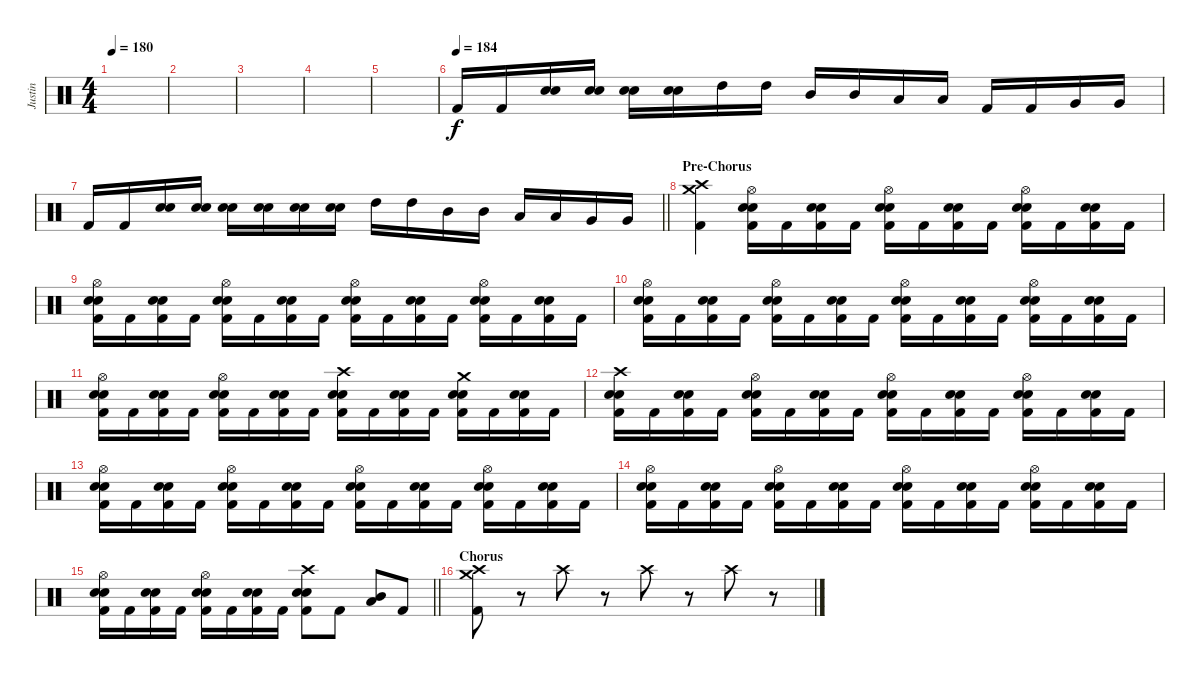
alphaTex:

\track ("Justin" "Justin") {instrument percussion}
\staff {score}
\articulation defaults
\ts (4 4)
\tempo 180
\clef neutral
\ks c
|
|
|
|
|
\tempo (184)
"Kick (hit) 2".16{dy f} "Kick (hit) 2".16 ("Electric Snare (hit)" "Snare (hit) 2").16 ("Electric Snare (hit)" "Snare (hit) 2").16 ("Electric Snare (hit)" "Snare (hit) 2").16 ("Electric Snare (hit)" "Snare (hit) 2").16 "High Tom (hit)".16 "High Tom (hit)".16 "Mid Tom (hit)".16 "Mid Tom (hit)".16 "Low Tom (hit)".16 "Low Tom (hit)".16 "Kick (hit) 2".16 "Kick (hit) 2".16 "Very Low Tom (hit)".16 "Very Low Tom (hit)".16 |
\barLineRight lightlight "Kick (hit) 2".16 "Kick (hit) 2".16
("Electric Snare (hit)" "Snare (hit) 2").16 ("Electric Snare (hit)" "Snare (hit) 2").16 ("Electric Snare (hit)" "Snare (hit) 2").16 ("Electric Snare (hit)" "Snare (hit) 2").16 ("Electric Snare (hit)" "Snare (hit) 2").16 ("Electric Snare (hit)" "Snare (hit) 2").16 "High Tom (hit)".16 "High Tom (hit)".16 "Mid Tom (hit)".16 "Mid Tom (hit)".16 "Low Tom (hit)".16 "Low Tom (hit)".16 "Very Low Tom (hit)".16 "Very Low Tom (hit)".16 |
\section ("" "Pre-Chorus")
("Crash medium (hit)" "Crash high (hit)" "Kick (hit) 2").4 ("Hi-Hat (open)" "Electric Snare (hit)" "Snare (hit) 2" "Kick (hit) 2").16 "Kick (hit) 2".16 ("Electric Snare (hit)" "Snare (hit) 2" "Kick (hit) 2").16 "Kick (hit) 2".16 ("Hi-Hat (open)" "Electric Snare (hit)" "Snare (hit) 2" "Kick (hit) 2").16 "Kick (hit) 2".16 ("Electric Snare (hit)" "Snare (hit) 2" "Kick (hit) 2").16 "Kick (hit) 2".16 ("Hi-Hat (open)" "Electric Snare (hit)" "Snare (hit) 2" "Kick (hit) 2").16 "Kick (hit) 2".16 ("Electric Snare (hit)" "Snare (hit) 2" "Kick (hit) 2").16 "Kick (hit) 2".16 |
("Hi-Hat (open)" "Electric Snare (hit)" "Snare (hit) 2" "Kick (hit) 2").16 "Kick (hit) 2".16 ("Electric Snare (hit)" "Snare (hit) 2" "Kick (hit) 2").16 "Kick (hit) 2".16 ("Hi-Hat (open)" "Electric Snare (hit)" "Snare (hit) 2" "Kick (hit) 2").16 "Kick (hit) 2".16 ("Electric Snare (hit)" "Snare (hit) 2" "Kick (hit) 2").16 "Kick (hit) 2".16 ("Hi-Hat (open)" "Electric Snare (hit)" "Snare (hit) 2" "Kick (hit) 2").16 "Kick (hit) 2".16 ("Electric Snare (hit)" "Snare (hit) 2" "Kick (hit) 2").16 "Kick (hit) 2".16 ("Hi-Hat (open)" "Electric Snare (hit)" "Snare (hit) 2" "Kick (hit) 2").16 "Kick (hit) 2".16 ("Electric Snare (hit)" "Snare (hit) 2" "Kick (hit) 2").16 "Kick (hit) 2".16 |
("Hi-Hat (open)" "Electric Snare (hit)" "Snare (hit) 2" "Kick (hit) 2").16 "Kick (hit) 2".16 ("Electric Snare (hit)" "Snare (hit) 2" "Kick (hit) 2").16 "Kick (hit) 2".16 ("Hi-Hat (open)" "Electric Snare (hit)" "Snare (hit) 2" "Kick (hit) 2").16 "Kick (hit) 2".16 ("Electric Snare (hit)" "Snare (hit) 2" "Kick (hit) 2").16 "Kick (hit) 2".16 ("Hi-Hat (open)" "Electric Snare (hit)" "Snare (hit) 2" "Kick (hit) 2").16 "Kick (hit) 2".16 ("Electric Snare (hit)" "Snare (hit) 2" "Kick (hit) 2").16 "Kick (hit) 2".16 ("Hi-Hat (open)" "Electric Snare (hit)" "Snare (hit) 2" "Kick (hit) 2").16 "Kick (hit) 2".16 ("Electric Snare (hit)" "Snare (hit) 2" "Kick (hit) 2").16 "Kick (hit) 2".16 |
("Hi-Hat (open)" "Electric Snare (hit)" "Snare (hit) 2" "Kick (hit) 2").16 "Kick (hit) 2".16 ("Electric Snare (hit)" "Snare (hit) 2" "Kick (hit) 2").16 "Kick (hit) 2".16 ("Hi-Hat (open)" "Electric Snare (hit)" "Snare (hit) 2" "Kick (hit) 2").16 "Kick (hit) 2".16 ("Electric Snare (hit)" "Snare (hit) 2" "Kick (hit) 2").16 "Kick (hit) 2".16 ("Crash high (hit)" "Electric Snare (hit)" "Snare (hit) 2" "Kick (hit) 2").16 "Kick (hit) 2".16 ("Electric Snare (hit)" "Snare (hit) 2" "Kick (hit) 2").16 "Kick (hit) 2".16 ("Crash medium (hit)" "Electric Snare (hit)" "Snare (hit) 2" "Kick (hit) 2").16 "Kick (hit) 2".16 ("Electric Snare (hit)" "Snare (hit) 2" "Kick (hit) 2").16 "Kick (hit) 2".16 |
("Crash high (hit)" "Electric Snare (hit)" "Snare (hit) 2" "Kick (hit) 2").16 "Kick (hit) 2".16 ("Electric Snare (hit)" "Snare (hit) 2" "Kick (hit) 2").16 "Kick (hit) 2".16 ("Hi-Hat (open)" "Electric Snare (hit)" "Snare (hit) 2" "Kick (hit) 2").16 "Kick (hit) 2".16 ("Electric Snare (hit)" "Snare (hit) 2" "Kick (hit) 2").16 "Kick (hit) 2".16 ("Hi-Hat (open)" "Electric Snare (hit)" "Snare (hit) 2" "Kick (hit) 2").16 "Kick (hit) 2".16 ("Electric Snare (hit)" "Snare (hit) 2" "Kick (hit) 2").16 "Kick (hit) 2".16 ("Hi-Hat (open)" "Electric Snare (hit)" "Snare (hit) 2" "Kick (hit) 2").16 "Kick (hit) 2".16 ("Electric Snare (hit)" "Snare (hit) 2" "Kick (hit) 2").16 "Kick (hit) 2".16 |
("Hi-Hat (open)" "Electric Snare (hit)" "Snare (hit) 2" "Kick (hit) 2").16 "Kick (hit) 2".16 ("Electric Snare (hit)" "Snare (hit) 2" "Kick (hit) 2").16 "Kick (hit) 2".16 ("Hi-Hat (open)" "Electric Snare (hit)" "Snare (hit) 2" "Kick (hit) 2").16 "Kick (hit) 2".16 ("Electric Snare (hit)" "Snare (hit) 2" "Kick (hit) 2").16 "Kick (hit) 2".16 ("Hi-Hat (open)" "Electric Snare (hit)" "Snare (hit) 2" "Kick (hit) 2").16 "Kick (hit) 2".16 ("Electric Snare (hit)" "Snare (hit) 2" "Kick (hit) 2").16 "Kick (hit) 2".16 ("Hi-Hat (open)" "Electric Snare (hit)" "Snare (hit) 2" "Kick (hit) 2").16 "Kick (hit) 2".16 ("Electric Snare (hit)" "Snare (hit) 2" "Kick (hit) 2").16 "Kick (hit) 2".16 |
("Hi-Hat (open)" "Electric Snare (hit)" "Snare (hit) 2" "Kick (hit) 2").16 "Kick (hit) 2".16 ("Electric Snare (hit)" "Snare (hit) 2" "Kick (hit) 2").16 "Kick (hit) 2".16 ("Hi-Hat (open)" "Electric Snare (hit)" "Snare (hit) 2" "Kick (hit) 2").16 "Kick (hit) 2".16 ("Electric Snare (hit)" "Snare (hit) 2" "Kick (hit) 2").16 "Kick (hit) 2".16 ("Hi-Hat (open)" "Electric Snare (hit)" "Snare (hit) 2" "Kick (hit) 2").16 "Kick (hit) 2".16 ("Electric Snare (hit)" "Snare (hit) 2" "Kick (hit) 2").16 "Kick (hit) 2".16 ("Hi-Hat (open)" "Electric Snare (hit)" "Snare (hit) 2" "Kick (hit) 2").16 "Kick (hit) 2".16 ("Electric Snare (hit)" "Snare (hit) 2" "Kick (hit) 2").16 "Kick (hit) 2".16 |
\barLineRight lightlight
("Hi-Hat (open)" "Electric Snare (hit)" "Snare (hit) 2" "Kick (hit) 2").16 "Kick (hit) 2".16 ("Electric Snare (hit)" "Snare (hit) 2" "Kick (hit) 2").16 "Kick (hit) 2".16 ("Hi-Hat (open)" "Electric Snare (hit)" "Snare (hit) 2" "Kick (hit) 2").16 "Kick (hit) 2".16 ("Electric Snare (hit)" "Snare (hit) 2" "Kick (hit) 2").16 "Kick (hit) 2".16 ("Crash high (hit)" "Electric Snare (hit)" "Snare (hit) 2" "Kick (hit) 2").8 "Kick (hit) 2".8 ("Mid Tom (hit)" "Low Tom (hit)").8 "Kick (hit) 2".8 |
\section ("" "Chorus")
("Crash medium (hit)" "Crash high (hit)" "Kick (hit) 2").8 r.8 "Crash high (hit)".8 r.8 "Crash high (hit)".8 r.8 "Crash high (hit)".8 r.8
